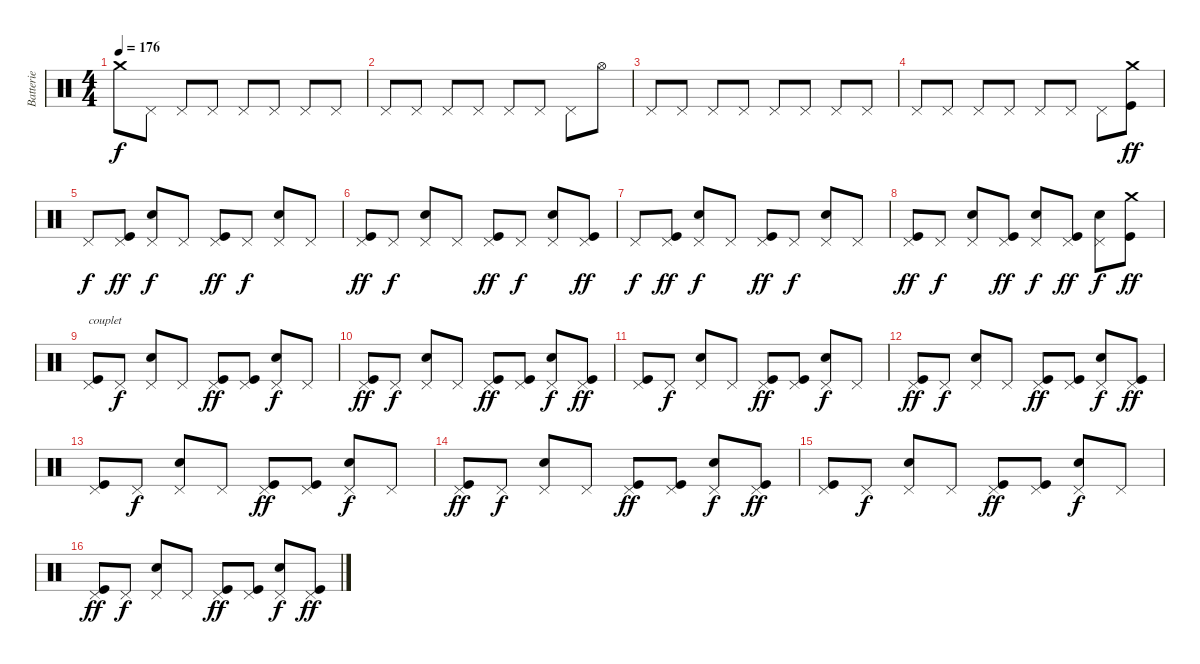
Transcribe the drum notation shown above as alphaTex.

\track ("Batterie" "Batterie") {instrument percussion}
\staff {score}
\articulation defaults
\ts (4 4)
\tempo 176
\clef neutral
\ks c "Crash medium (hit)".8{dy f} "Pedal Hi-Hat (hit)".8 "Pedal Hi-Hat (hit)".8 "Pedal Hi-Hat (hit)".8 "Pedal Hi-Hat (hit)".8 "Pedal Hi-Hat (hit)".8 "Pedal Hi-Hat (hit)".8 "Pedal Hi-Hat (hit)".8
|
"Pedal Hi-Hat (hit)".8 "Pedal Hi-Hat (hit)".8 "Pedal Hi-Hat (hit)".8 "Pedal Hi-Hat (hit)".8 "Pedal Hi-Hat (hit)".8 "Pedal Hi-Hat (hit)".8 "Pedal Hi-Hat (hit)".8 "Hi-Hat (open)".8 |
"Pedal Hi-Hat (hit)".8 "Pedal Hi-Hat (hit)".8 "Pedal Hi-Hat (hit)".8 "Pedal Hi-Hat (hit)".8 "Pedal Hi-Hat (hit)".8 "Pedal Hi-Hat (hit)".8 "Pedal Hi-Hat (hit)".8 "Pedal Hi-Hat (hit)".8 |
"Pedal Hi-Hat (hit)".8 "Pedal Hi-Hat (hit)".8 "Pedal Hi-Hat (hit)".8 "Pedal Hi-Hat (hit)".8 "Pedal Hi-Hat (hit)".8 "Pedal Hi-Hat (hit)".8 "Pedal Hi-Hat (hit)".8 ("Crash medium (hit)" "Kick (hit)").8{dy ff} |
"Pedal Hi-Hat (hit)".8{dy f} ("Pedal Hi-Hat (hit)" "Kick (hit)").8{dy ff} ("Pedal Hi-Hat (hit)" "Snare (hit) 2").8{dy f} "Pedal Hi-Hat (hit)".8 ("Pedal Hi-Hat (hit)" "Kick (hit)").8{dy ff} "Pedal Hi-Hat (hit)".8{dy f} ("Pedal Hi-Hat (hit)" "Snare (hit) 2").8 "Pedal Hi-Hat (hit)".8 |
("Pedal Hi-Hat (hit)" "Kick (hit)").8{dy ff} "Pedal Hi-Hat (hit)".8{dy f} ("Pedal Hi-Hat (hit)" "Snare (hit) 2").8 "Pedal Hi-Hat (hit)".8 ("Pedal Hi-Hat (hit)" "Kick (hit)").8{dy ff} "Pedal Hi-Hat (hit)".8{dy f} ("Pedal Hi-Hat (hit)" "Snare (hit) 2").8 ("Pedal Hi-Hat (hit)" "Kick (hit)").8{dy ff} |
"Pedal Hi-Hat (hit)".8{dy f} ("Pedal Hi-Hat (hit)" "Kick (hit)").8{dy ff} ("Pedal Hi-Hat (hit)" "Snare (hit) 2").8{dy f} "Pedal Hi-Hat (hit)".8 ("Pedal Hi-Hat (hit)" "Kick (hit)").8{dy ff} "Pedal Hi-Hat (hit)".8{dy f} ("Pedal Hi-Hat (hit)" "Snare (hit) 2").8 "Pedal Hi-Hat (hit)".8 |
("Pedal Hi-Hat (hit)" "Kick (hit)").8{dy ff} "Pedal Hi-Hat (hit)".8{dy f} ("Pedal Hi-Hat (hit)" "Snare (hit) 2").8 ("Pedal Hi-Hat (hit)" "Kick (hit)").8{dy ff} ("Pedal Hi-Hat (hit)" "Snare (hit) 2").8{dy f} ("Pedal Hi-Hat (hit)" "Kick (hit)").8{dy ff} ("Pedal Hi-Hat (hit)" "Snare (hit) 2").8{dy f} ("Crash medium (hit)" "Kick (hit)").8{dy ff} |
("Pedal Hi-Hat (hit)" "Kick (hit)").8{txt "couplet"} "Pedal Hi-Hat (hit)".8{dy f} ("Pedal Hi-Hat (hit)" "Snare (hit) 2").8 "Pedal Hi-Hat (hit)".8 ("Pedal Hi-Hat (hit)" "Kick (hit)").8{dy ff} ("Pedal Hi-Hat (hit)" "Kick (hit)").8 ("Pedal Hi-Hat (hit)" "Snare (hit) 2").8{dy f} "Pedal Hi-Hat (hit)".8 |
("Pedal Hi-Hat (hit)" "Kick (hit)").8{dy ff} "Pedal Hi-Hat (hit)".8{dy f} ("Pedal Hi-Hat (hit)" "Snare (hit) 2").8 "Pedal Hi-Hat (hit)".8 ("Pedal Hi-Hat (hit)" "Kick (hit)").8{dy ff} ("Pedal Hi-Hat (hit)" "Kick (hit)").8 ("Pedal Hi-Hat (hit)" "Snare (hit) 2").8{dy f} ("Pedal Hi-Hat (hit)" "Kick (hit)").8{dy ff} |
("Pedal Hi-Hat (hit)" "Kick (hit)").8 "Pedal Hi-Hat (hit)".8{dy f} ("Pedal Hi-Hat (hit)" "Snare (hit) 2").8 "Pedal Hi-Hat (hit)".8 ("Pedal Hi-Hat (hit)" "Kick (hit)").8{dy ff} ("Pedal Hi-Hat (hit)" "Kick (hit)").8 ("Pedal Hi-Hat (hit)" "Snare (hit) 2").8{dy f} "Pedal Hi-Hat (hit)".8 |
("Pedal Hi-Hat (hit)" "Kick (hit)").8{dy ff} "Pedal Hi-Hat (hit)".8{dy f} ("Pedal Hi-Hat (hit)" "Snare (hit) 2").8 "Pedal Hi-Hat (hit)".8 ("Pedal Hi-Hat (hit)" "Kick (hit)").8{dy ff} ("Pedal Hi-Hat (hit)" "Kick (hit)").8 ("Pedal Hi-Hat (hit)" "Snare (hit) 2").8{dy f} ("Pedal Hi-Hat (hit)" "Kick (hit)").8{dy ff} |
("Pedal Hi-Hat (hit)" "Kick (hit)").8 "Pedal Hi-Hat (hit)".8{dy f} ("Pedal Hi-Hat (hit)" "Snare (hit) 2").8 "Pedal Hi-Hat (hit)".8 ("Pedal Hi-Hat (hit)" "Kick (hit)").8{dy ff} ("Pedal Hi-Hat (hit)" "Kick (hit)").8 ("Pedal Hi-Hat (hit)" "Snare (hit) 2").8{dy f} "Pedal Hi-Hat (hit)".8 |
("Pedal Hi-Hat (hit)" "Kick (hit)").8{dy ff} "Pedal Hi-Hat (hit)".8{dy f} ("Pedal Hi-Hat (hit)" "Snare (hit) 2").8 "Pedal Hi-Hat (hit)".8 ("Pedal Hi-Hat (hit)" "Kick (hit)").8{dy ff} ("Pedal Hi-Hat (hit)" "Kick (hit)").8 ("Pedal Hi-Hat (hit)" "Snare (hit) 2").8{dy f} ("Pedal Hi-Hat (hit)" "Kick (hit)").8{dy ff} |
("Pedal Hi-Hat (hit)" "Kick (hit)").8 "Pedal Hi-Hat (hit)".8{dy f} ("Pedal Hi-Hat (hit)" "Snare (hit) 2").8 "Pedal Hi-Hat (hit)".8 ("Pedal Hi-Hat (hit)" "Kick (hit)").8{dy ff} ("Pedal Hi-Hat (hit)" "Kick (hit)").8 ("Pedal Hi-Hat (hit)" "Snare (hit) 2").8{dy f} "Pedal Hi-Hat (hit)".8 |
("Pedal Hi-Hat (hit)" "Kick (hit)").8{dy ff} "Pedal Hi-Hat (hit)".8{dy f} ("Pedal Hi-Hat (hit)" "Snare (hit) 2").8 "Pedal Hi-Hat (hit)".8 ("Pedal Hi-Hat (hit)" "Kick (hit)").8{dy ff} ("Pedal Hi-Hat (hit)" "Kick (hit)").8 ("Pedal Hi-Hat (hit)" "Snare (hit) 2").8{dy f} ("Pedal Hi-Hat (hit)" "Kick (hit)").8{dy ff}
